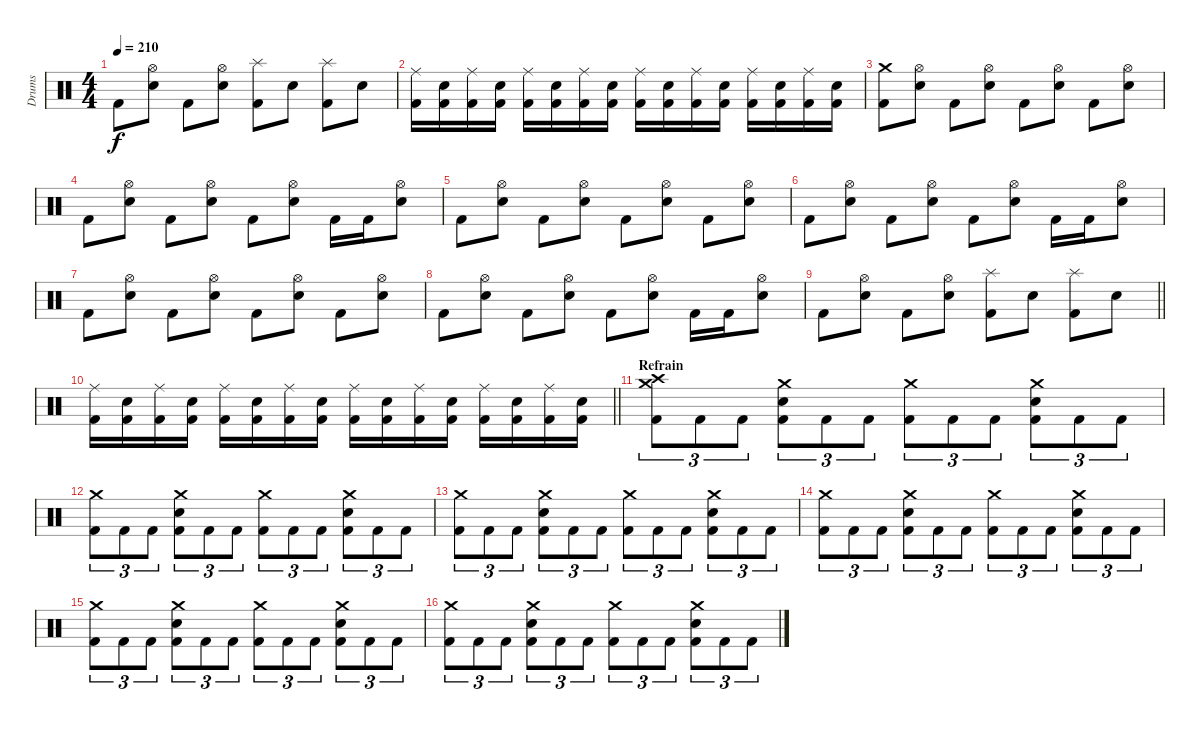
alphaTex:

\track ("Drums" "Drums") {instrument percussion}
\staff {score}
\articulation defaults
\ts (4 4)
\tempo 210
\clef neutral
\ks c "Kick (hit) 2".8{dy f}
("Hi-Hat (open)" "Electric Snare (hit)").8 "Kick (hit) 2".8 ("Hi-Hat (open)" "Electric Snare (hit)").8 ("Splash (hit)" "Kick (hit) 2").8 "Electric Snare (hit)".8 ("Splash (hit)" "Kick (hit) 2").8 "Electric Snare (hit)".8 |
("Ride (middle)" "Kick (hit) 2").16 ("Electric Snare (hit)" "Kick (hit) 2").16 ("Ride (middle)" "Kick (hit) 2").16 ("Electric Snare (hit)" "Kick (hit) 2").16 ("Ride (middle)" "Kick (hit) 2").16 ("Electric Snare (hit)" "Kick (hit) 2").16 ("Ride (middle)" "Kick (hit) 2").16 ("Electric Snare (hit)" "Kick (hit) 2").16 ("Ride (middle)" "Kick (hit) 2").16 ("Electric Snare (hit)" "Kick (hit) 2").16 ("Ride (middle)" "Kick (hit) 2").16 ("Electric Snare (hit)" "Kick (hit) 2").16 ("Ride (middle)" "Kick (hit) 2").16 ("Electric Snare (hit)" "Kick (hit) 2").16 ("Ride (middle)" "Kick (hit) 2").16 ("Electric Snare (hit)" "Kick (hit) 2").16 |
("Crash medium (hit)" "Kick (hit) 2").8 ("Hi-Hat (open)" "Electric Snare (hit)").8 "Kick (hit) 2".8 ("Hi-Hat (open)" "Electric Snare (hit)").8 "Kick (hit) 2".8 ("Hi-Hat (open)" "Electric Snare (hit)").8 "Kick (hit) 2".8 ("Hi-Hat (open)" "Electric Snare (hit)").8 |
"Kick (hit) 2".8 ("Hi-Hat (open)" "Electric Snare (hit)").8 "Kick (hit) 2".8 ("Hi-Hat (open)" "Electric Snare (hit)").8 "Kick (hit) 2".8 ("Hi-Hat (open)" "Electric Snare (hit)").8 "Kick (hit) 2".16 "Kick (hit) 2".16 ("Hi-Hat (open)" "Electric Snare (hit)").8 |
"Kick (hit) 2".8 ("Hi-Hat (open)" "Electric Snare (hit)").8 "Kick (hit) 2".8 ("Hi-Hat (open)" "Electric Snare (hit)").8 "Kick (hit) 2".8 ("Hi-Hat (open)" "Electric Snare (hit)").8 "Kick (hit) 2".8 ("Hi-Hat (open)" "Electric Snare (hit)").8 |
"Kick (hit) 2".8 ("Hi-Hat (open)" "Electric Snare (hit)").8 "Kick (hit) 2".8 ("Hi-Hat (open)" "Electric Snare (hit)").8 "Kick (hit) 2".8 ("Hi-Hat (open)" "Electric Snare (hit)").8 "Kick (hit) 2".16 "Kick (hit) 2".16 ("Hi-Hat (open)" "Electric Snare (hit)").8 |
"Kick (hit) 2".8 ("Hi-Hat (open)" "Electric Snare (hit)").8 "Kick (hit) 2".8 ("Hi-Hat (open)" "Electric Snare (hit)").8 "Kick (hit) 2".8 ("Hi-Hat (open)" "Electric Snare (hit)").8 "Kick (hit) 2".8 ("Hi-Hat (open)" "Electric Snare (hit)").8 |
"Kick (hit) 2".8 ("Hi-Hat (open)" "Electric Snare (hit)").8 "Kick (hit) 2".8 ("Hi-Hat (open)" "Electric Snare (hit)").8 "Kick (hit) 2".8 ("Hi-Hat (open)" "Electric Snare (hit)").8 "Kick (hit) 2".16 "Kick (hit) 2".16 ("Hi-Hat (open)" "Electric Snare (hit)").8 |
\barLineRight lightlight "Kick (hit) 2".8
("Hi-Hat (open)" "Electric Snare (hit)").8 "Kick (hit) 2".8 ("Hi-Hat (open)" "Electric Snare (hit)").8 ("Splash (hit)" "Kick (hit) 2").8 "Electric Snare (hit)".8 ("Splash (hit)" "Kick (hit) 2").8 "Electric Snare (hit)".8 |
\barLineRight lightlight
("Ride (middle)" "Kick (hit) 2").16 ("Electric Snare (hit)" "Kick (hit) 2").16 ("Ride (middle)" "Kick (hit) 2").16 ("Electric Snare (hit)" "Kick (hit) 2").16 ("Ride (middle)" "Kick (hit) 2").16 ("Electric Snare (hit)" "Kick (hit) 2").16 ("Ride (middle)" "Kick (hit) 2").16 ("Electric Snare (hit)" "Kick (hit) 2").16 ("Ride (middle)" "Kick (hit) 2").16 ("Electric Snare (hit)" "Kick (hit) 2").16 ("Ride (middle)" "Kick (hit) 2").16 ("Electric Snare (hit)" "Kick (hit) 2").16 ("Ride (middle)" "Kick (hit) 2").16 ("Electric Snare (hit)" "Kick (hit) 2").16 ("Ride (middle)" "Kick (hit) 2").16 ("Electric Snare (hit)" "Kick (hit) 2").16 |
\section ("" "Refrain")
("Crash medium (hit)" "Crash high (hit)" "Kick (hit) 2").8{tu (3 2)} "Kick (hit) 2".8{tu (3 2)} "Kick (hit) 2".8{tu (3 2)} ("Crash medium (hit)" "Electric Snare (hit)" "Kick (hit) 2").8{tu (3 2)} "Kick (hit) 2".8{tu (3 2)} "Kick (hit) 2".8{tu (3 2)} ("Crash medium (hit)" "Kick (hit) 2").8{tu (3 2)} "Kick (hit) 2".8{tu (3 2)} "Kick (hit) 2".8{tu (3 2)} ("Crash medium (hit)" "Electric Snare (hit)" "Kick (hit) 2").8{tu (3 2)} "Kick (hit) 2".8{tu (3 2)} "Kick (hit) 2".8{tu (3 2)} |
("Crash medium (hit)" "Kick (hit) 2").8{tu (3 2)} "Kick (hit) 2".8{tu (3 2)} "Kick (hit) 2".8{tu (3 2)} ("Crash medium (hit)" "Electric Snare (hit)" "Kick (hit) 2").8{tu (3 2)} "Kick (hit) 2".8{tu (3 2)} "Kick (hit) 2".8{tu (3 2)} ("Crash medium (hit)" "Kick (hit) 2").8{tu (3 2)} "Kick (hit) 2".8{tu (3 2)} "Kick (hit) 2".8{tu (3 2)} ("Crash medium (hit)" "Electric Snare (hit)" "Kick (hit) 2").8{tu (3 2)} "Kick (hit) 2".8{tu (3 2)} "Kick (hit) 2".8{tu (3 2)} |
("Crash medium (hit)" "Kick (hit) 2").8{tu (3 2)} "Kick (hit) 2".8{tu (3 2)} "Kick (hit) 2".8{tu (3 2)} ("Crash medium (hit)" "Electric Snare (hit)" "Kick (hit) 2").8{tu (3 2)} "Kick (hit) 2".8{tu (3 2)} "Kick (hit) 2".8{tu (3 2)} ("Crash medium (hit)" "Kick (hit) 2").8{tu (3 2)} "Kick (hit) 2".8{tu (3 2)} "Kick (hit) 2".8{tu (3 2)} ("Crash medium (hit)" "Electric Snare (hit)" "Kick (hit) 2").8{tu (3 2)} "Kick (hit) 2".8{tu (3 2)} "Kick (hit) 2".8{tu (3 2)} |
("Crash medium (hit)" "Kick (hit) 2").8{tu (3 2)} "Kick (hit) 2".8{tu (3 2)} "Kick (hit) 2".8{tu (3 2)} ("Crash medium (hit)" "Electric Snare (hit)" "Kick (hit) 2").8{tu (3 2)} "Kick (hit) 2".8{tu (3 2)} "Kick (hit) 2".8{tu (3 2)} ("Crash medium (hit)" "Kick (hit) 2").8{tu (3 2)} "Kick (hit) 2".8{tu (3 2)} "Kick (hit) 2".8{tu (3 2)} ("Crash medium (hit)" "Electric Snare (hit)" "Kick (hit) 2").8{tu (3 2)} "Kick (hit) 2".8{tu (3 2)} "Kick (hit) 2".8{tu (3 2)} |
("Crash medium (hit)" "Kick (hit) 2").8{tu (3 2)} "Kick (hit) 2".8{tu (3 2)} "Kick (hit) 2".8{tu (3 2)} ("Crash medium (hit)" "Electric Snare (hit)" "Kick (hit) 2").8{tu (3 2)} "Kick (hit) 2".8{tu (3 2)} "Kick (hit) 2".8{tu (3 2)} ("Crash medium (hit)" "Kick (hit) 2").8{tu (3 2)} "Kick (hit) 2".8{tu (3 2)} "Kick (hit) 2".8{tu (3 2)} ("Crash medium (hit)" "Electric Snare (hit)" "Kick (hit) 2").8{tu (3 2)} "Kick (hit) 2".8{tu (3 2)} "Kick (hit) 2".8{tu (3 2)} |
("Crash medium (hit)" "Kick (hit) 2").8{tu (3 2)} "Kick (hit) 2".8{tu (3 2)} "Kick (hit) 2".8{tu (3 2)} ("Crash medium (hit)" "Electric Snare (hit)" "Kick (hit) 2").8{tu (3 2)} "Kick (hit) 2".8{tu (3 2)} "Kick (hit) 2".8{tu (3 2)} ("Crash medium (hit)" "Kick (hit) 2").8{tu (3 2)} "Kick (hit) 2".8{tu (3 2)} "Kick (hit) 2".8{tu (3 2)} ("Crash medium (hit)" "Electric Snare (hit)" "Kick (hit) 2").8{tu (3 2)} "Kick (hit) 2".8{tu (3 2)} "Kick (hit) 2".8{tu (3 2)}
